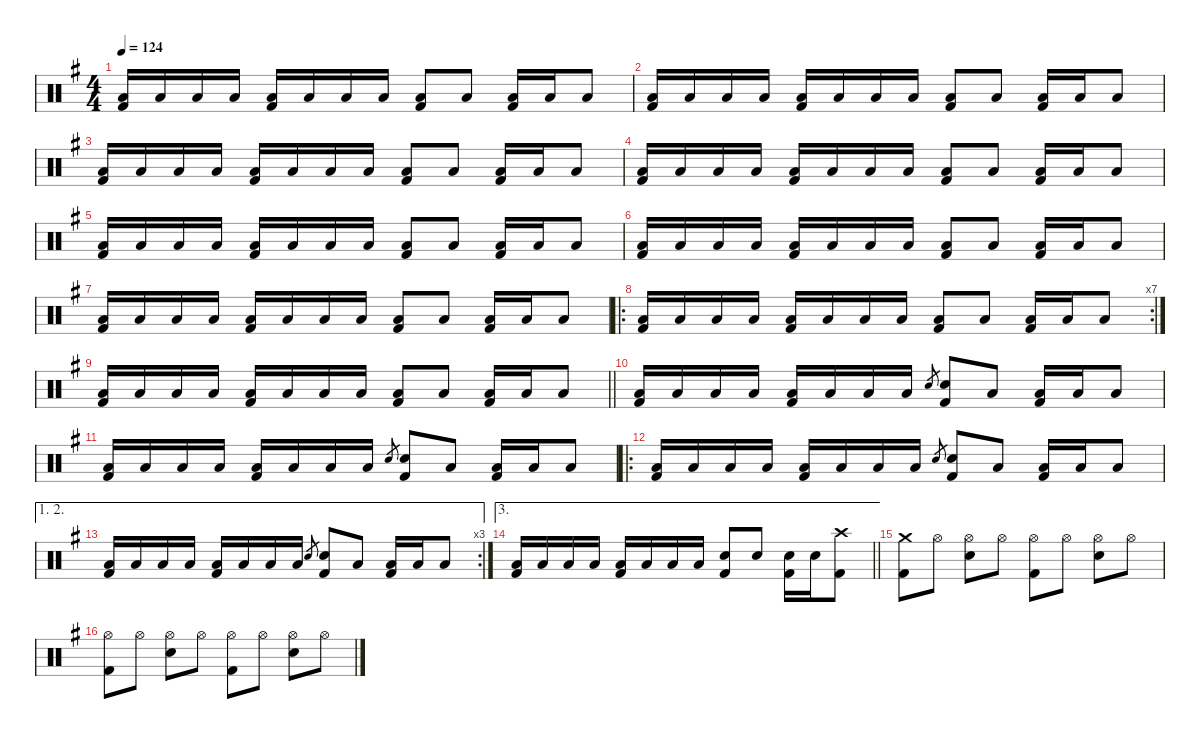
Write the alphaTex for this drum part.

\defaultSystemsLayout 4
\hideDynamics
\bracketExtendMode nobrackets
\singleTrackTrackNamePolicy hidden
\multiTrackTrackNamePolicy hidden
\otherSystemsTrackNameOrientation horizontal
\track ("Drums" "drm.") {defaultSystemsLayout 4 instrument percussion}
\staff {score}
\articulation defaults
\ts (4 4)
\beaming (8 2 2 2 2)
\tempo 124
\clef neutral
\ks eminor
("Low Floor Tom (hit)"{acc forcenatural} "Kick (hit) 2"{acc forcenatural}).16{dy mf beam Up} "Low Floor Tom (hit)"{acc forcenatural}.16{dy mp beam Up} "Low Floor Tom (hit)"{acc forcenatural}.16{dy mf beam Up} "Low Floor Tom (hit)"{acc forcenatural}.16{dy mp beam Up} ("Low Floor Tom (hit)"{acc forcenatural} "Kick (hit) 2"{acc forcenatural}).16{dy mf beam Up} "Low Floor Tom (hit)"{acc forcenatural}.16{dy mp beam Up} "Low Floor Tom (hit)"{acc forcenatural}.16{dy mf beam Up} "Low Floor Tom (hit)"{acc forcenatural}.16{dy p beam Up} ("Low Floor Tom (hit)"{acc forcenatural} "Kick (hit) 2"{acc forcenatural}).8{dy mf beam Up} "Low Floor Tom (hit)"{acc forcenatural}.8{beam Up} ("Low Floor Tom (hit)"{acc forcenatural} "Kick (hit) 2"{acc forcenatural}).16{beam Up} "Low Floor Tom (hit)"{acc forcenatural}.16{dy mp beam Up} "Low Floor Tom (hit)"{acc forcenatural}.8{dy mf beam Up} |
("Low Floor Tom (hit)"{acc forcenatural} "Kick (hit) 2"{acc forcenatural}).16{beam Up} "Low Floor Tom (hit)"{acc forcenatural}.16{dy mp beam Up} "Low Floor Tom (hit)"{acc forcenatural}.16{dy mf beam Up} "Low Floor Tom (hit)"{acc forcenatural}.16{dy mp beam Up} ("Low Floor Tom (hit)"{acc forcenatural} "Kick (hit) 2"{acc forcenatural}).16{dy mf beam Up} "Low Floor Tom (hit)"{acc forcenatural}.16{dy mp beam Up} "Low Floor Tom (hit)"{acc forcenatural}.16{dy mf beam Up} "Low Floor Tom (hit)"{acc forcenatural}.16{dy p beam Up} ("Low Floor Tom (hit)"{acc forcenatural} "Kick (hit) 2"{acc forcenatural}).8{dy mf beam Up} "Low Floor Tom (hit)"{acc forcenatural}.8{beam Up} ("Low Floor Tom (hit)"{acc forcenatural} "Kick (hit) 2"{acc forcenatural}).16{beam Up} "Low Floor Tom (hit)"{acc forcenatural}.16{dy mp beam Up} "Low Floor Tom (hit)"{acc forcenatural}.8{dy mf beam Up} |
("Low Floor Tom (hit)"{acc forcenatural} "Kick (hit) 2"{acc forcenatural}).16{beam Up} "Low Floor Tom (hit)"{acc forcenatural}.16{dy mp beam Up} "Low Floor Tom (hit)"{acc forcenatural}.16{dy mf beam Up} "Low Floor Tom (hit)"{acc forcenatural}.16{dy mp beam Up} ("Low Floor Tom (hit)"{acc forcenatural} "Kick (hit) 2"{acc forcenatural}).16{dy mf beam Up} "Low Floor Tom (hit)"{acc forcenatural}.16{dy mp beam Up} "Low Floor Tom (hit)"{acc forcenatural}.16{dy mf beam Up} "Low Floor Tom (hit)"{acc forcenatural}.16{dy p beam Up} ("Low Floor Tom (hit)"{acc forcenatural} "Kick (hit) 2"{acc forcenatural}).8{dy mf beam Up} "Low Floor Tom (hit)"{acc forcenatural}.8{beam Up} ("Low Floor Tom (hit)"{acc forcenatural} "Kick (hit) 2"{acc forcenatural}).16{beam Up} "Low Floor Tom (hit)"{acc forcenatural}.16{dy mp beam Up} "Low Floor Tom (hit)"{acc forcenatural}.8{dy mf beam Up} |
("Low Floor Tom (hit)"{acc forcenatural} "Kick (hit) 2"{acc forcenatural}).16{beam Up} "Low Floor Tom (hit)"{acc forcenatural}.16{dy mp beam Up} "Low Floor Tom (hit)"{acc forcenatural}.16{dy mf beam Up} "Low Floor Tom (hit)"{acc forcenatural}.16{dy mp beam Up} ("Low Floor Tom (hit)"{acc forcenatural} "Kick (hit) 2"{acc forcenatural}).16{dy mf beam Up} "Low Floor Tom (hit)"{acc forcenatural}.16{dy mp beam Up} "Low Floor Tom (hit)"{acc forcenatural}.16{dy mf beam Up} "Low Floor Tom (hit)"{acc forcenatural}.16{dy p beam Up} ("Low Floor Tom (hit)"{acc forcenatural} "Kick (hit) 2"{acc forcenatural}).8{dy mf beam Up} "Low Floor Tom (hit)"{acc forcenatural}.8{beam Up} ("Low Floor Tom (hit)"{acc forcenatural} "Kick (hit) 2"{acc forcenatural}).16{beam Up} "Low Floor Tom (hit)"{acc forcenatural}.16{dy mp beam Up} "Low Floor Tom (hit)"{acc forcenatural}.8{dy mf beam Up} |
("Low Floor Tom (hit)"{acc forcenatural} "Kick (hit) 2"{acc forcenatural}).16{beam Up} "Low Floor Tom (hit)"{acc forcenatural}.16{dy mp beam Up} "Low Floor Tom (hit)"{acc forcenatural}.16{dy mf beam Up} "Low Floor Tom (hit)"{acc forcenatural}.16{dy mp beam Up} ("Low Floor Tom (hit)"{acc forcenatural} "Kick (hit) 2"{acc forcenatural}).16{dy mf beam Up} "Low Floor Tom (hit)"{acc forcenatural}.16{dy mp beam Up} "Low Floor Tom (hit)"{acc forcenatural}.16{dy mf beam Up} "Low Floor Tom (hit)"{acc forcenatural}.16{dy p beam Up} ("Low Floor Tom (hit)"{acc forcenatural} "Kick (hit) 2"{acc forcenatural}).8{dy mf beam Up} "Low Floor Tom (hit)"{acc forcenatural}.8{beam Up} ("Low Floor Tom (hit)"{acc forcenatural} "Kick (hit) 2"{acc forcenatural}).16{beam Up} "Low Floor Tom (hit)"{acc forcenatural}.16{dy mp beam Up} "Low Floor Tom (hit)"{acc forcenatural}.8{dy mf beam Up} |
("Low Floor Tom (hit)"{acc forcenatural} "Kick (hit) 2"{acc forcenatural}).16{beam Up} "Low Floor Tom (hit)"{acc forcenatural}.16{dy mp beam Up} "Low Floor Tom (hit)"{acc forcenatural}.16{dy mf beam Up} "Low Floor Tom (hit)"{acc forcenatural}.16{dy mp beam Up} ("Low Floor Tom (hit)"{acc forcenatural} "Kick (hit) 2"{acc forcenatural}).16{dy mf beam Up} "Low Floor Tom (hit)"{acc forcenatural}.16{dy mp beam Up} "Low Floor Tom (hit)"{acc forcenatural}.16{dy mf beam Up} "Low Floor Tom (hit)"{acc forcenatural}.16{dy p beam Up} ("Low Floor Tom (hit)"{acc forcenatural} "Kick (hit) 2"{acc forcenatural}).8{dy mf beam Up} "Low Floor Tom (hit)"{acc forcenatural}.8{beam Up} ("Low Floor Tom (hit)"{acc forcenatural} "Kick (hit) 2"{acc forcenatural}).16{beam Up} "Low Floor Tom (hit)"{acc forcenatural}.16{dy mp beam Up} "Low Floor Tom (hit)"{acc forcenatural}.8{dy mf beam Up} |
("Low Floor Tom (hit)"{acc forcenatural} "Kick (hit) 2"{acc forcenatural}).16{beam Up} "Low Floor Tom (hit)"{acc forcenatural}.16{dy mp beam Up} "Low Floor Tom (hit)"{acc forcenatural}.16{dy mf beam Up} "Low Floor Tom (hit)"{acc forcenatural}.16{dy mp beam Up} ("Low Floor Tom (hit)"{acc forcenatural} "Kick (hit) 2"{acc forcenatural}).16{dy mf beam Up} "Low Floor Tom (hit)"{acc forcenatural}.16{dy mp beam Up} "Low Floor Tom (hit)"{acc forcenatural}.16{dy mf beam Up} "Low Floor Tom (hit)"{acc forcenatural}.16{dy p beam Up} ("Low Floor Tom (hit)"{acc forcenatural} "Kick (hit) 2"{acc forcenatural}).8{dy mf beam Up} "Low Floor Tom (hit)"{acc forcenatural}.8{beam Up} ("Low Floor Tom (hit)"{acc forcenatural} "Kick (hit) 2"{acc forcenatural}).16{beam Up} "Low Floor Tom (hit)"{acc forcenatural}.16{dy mp beam Up} "Low Floor Tom (hit)"{acc forcenatural}.8{dy mf beam Up} |
\ro
\rc 7
("Low Floor Tom (hit)"{acc forcenatural} "Kick (hit) 2"{acc forcenatural}).16{beam Up} "Low Floor Tom (hit)"{acc forcenatural}.16{dy mp beam Up} "Low Floor Tom (hit)"{acc forcenatural}.16{dy mf beam Up} "Low Floor Tom (hit)"{acc forcenatural}.16{dy mp beam Up} ("Low Floor Tom (hit)"{acc forcenatural} "Kick (hit) 2"{acc forcenatural}).16{dy mf beam Up} "Low Floor Tom (hit)"{acc forcenatural}.16{dy mp beam Up} "Low Floor Tom (hit)"{acc forcenatural}.16{dy mf beam Up} "Low Floor Tom (hit)"{acc forcenatural}.16{dy p beam Up} ("Low Floor Tom (hit)"{acc forcenatural} "Kick (hit) 2"{acc forcenatural}).8{dy mf beam Up} "Low Floor Tom (hit)"{acc forcenatural}.8{beam Up} ("Low Floor Tom (hit)"{acc forcenatural} "Kick (hit) 2"{acc forcenatural}).16{beam Up} "Low Floor Tom (hit)"{acc forcenatural}.16{dy mp beam Up} "Low Floor Tom (hit)"{acc forcenatural}.8{dy mf beam Up} |
\barLineRight lightlight
("Low Floor Tom (hit)"{acc forcenatural} "Kick (hit) 2"{acc forcenatural}).16{beam Up} "Low Floor Tom (hit)"{acc forcenatural}.16{dy mp beam Up} "Low Floor Tom (hit)"{acc forcenatural}.16{dy mf beam Up} "Low Floor Tom (hit)"{acc forcenatural}.16{dy mp beam Up} ("Low Floor Tom (hit)"{acc forcenatural} "Kick (hit) 2"{acc forcenatural}).16{dy mf beam Up} "Low Floor Tom (hit)"{acc forcenatural}.16{dy mp beam Up} "Low Floor Tom (hit)"{acc forcenatural}.16{dy mf beam Up} "Low Floor Tom (hit)"{acc forcenatural}.16{dy p beam Up} ("Low Floor Tom (hit)"{acc forcenatural} "Kick (hit) 2"{acc forcenatural}).8{dy mf beam Up} "Low Floor Tom (hit)"{acc forcenatural}.8{beam Up} ("Low Floor Tom (hit)"{acc forcenatural} "Kick (hit) 2"{acc forcenatural}).16{beam Up} "Low Floor Tom (hit)"{acc forcenatural}.16{dy mp beam Up} "Low Floor Tom (hit)"{acc forcenatural}.8{dy mf beam Up} |
("Low Floor Tom (hit)"{acc forcenatural} "Kick (hit) 2"{acc forcenatural}).16{beam Up} "Low Floor Tom (hit)"{acc forcenatural}.16{dy mp beam Up} "Low Floor Tom (hit)"{acc forcenatural}.16{dy mf beam Up} "Low Floor Tom (hit)"{acc forcenatural}.16{dy mp beam Up} ("Low Floor Tom (hit)"{acc forcenatural} "Kick (hit) 2"{acc forcenatural}).16{dy mf beam Up} "Low Floor Tom (hit)"{acc forcenatural}.16{dy mp beam Up} "Low Floor Tom (hit)"{acc forcenatural}.16{dy mf beam Up} "Low Floor Tom (hit)"{acc forcenatural}.16{dy p beam Up} "Electric Snare (hit)"{acc forcenatural}.8{gr beam Up} ("Snare (hit) 2"{acc forcenatural} "Kick (hit) 2"{acc forcenatural}).8{dy f beam Up} "Low Floor Tom (hit)"{acc forcenatural}.8{dy mf beam Up} ("Low Floor Tom (hit)"{acc forcenatural} "Kick (hit) 2"{acc forcenatural}).16{beam Up} "Low Floor Tom (hit)"{acc forcenatural}.16{dy mp beam Up} "Low Floor Tom (hit)"{acc forcenatural}.8{dy mf beam Up} |
("Low Floor Tom (hit)"{acc forcenatural} "Kick (hit) 2"{acc forcenatural}).16{beam Up} "Low Floor Tom (hit)"{acc forcenatural}.16{dy mp beam Up} "Low Floor Tom (hit)"{acc forcenatural}.16{dy mf beam Up} "Low Floor Tom (hit)"{acc forcenatural}.16{dy mp beam Up} ("Low Floor Tom (hit)"{acc forcenatural} "Kick (hit) 2"{acc forcenatural}).16{dy mf beam Up} "Low Floor Tom (hit)"{acc forcenatural}.16{dy mp beam Up} "Low Floor Tom (hit)"{acc forcenatural}.16{dy mf beam Up} "Low Floor Tom (hit)"{acc forcenatural}.16{dy p beam Up} "Electric Snare (hit)"{acc forcenatural}.8{gr dy mp beam Up} ("Snare (hit) 2"{acc forcenatural} "Kick (hit) 2"{acc forcenatural}).8{dy f beam Up} "Low Floor Tom (hit)"{acc forcenatural}.8{dy mf beam Up} ("Low Floor Tom (hit)"{acc forcenatural} "Kick (hit) 2"{acc forcenatural}).16{beam Up} "Low Floor Tom (hit)"{acc forcenatural}.16{dy mp beam Up} "Low Floor Tom (hit)"{acc forcenatural}.8{dy mf beam Up} |
\ro
("Low Floor Tom (hit)"{acc forcenatural} "Kick (hit) 2"{acc forcenatural}).16{beam Up} "Low Floor Tom (hit)"{acc forcenatural}.16{dy mp beam Up} "Low Floor Tom (hit)"{acc forcenatural}.16{dy mf beam Up} "Low Floor Tom (hit)"{acc forcenatural}.16{dy mp beam Up} ("Low Floor Tom (hit)"{acc forcenatural} "Kick (hit) 2"{acc forcenatural}).16{dy mf beam Up} "Low Floor Tom (hit)"{acc forcenatural}.16{dy mp beam Up} "Low Floor Tom (hit)"{acc forcenatural}.16{dy mf beam Up} "Low Floor Tom (hit)"{acc forcenatural}.16{dy p beam Up} "Electric Snare (hit)"{acc forcenatural}.8{gr dy mp beam Up} ("Snare (hit) 2"{acc forcenatural} "Kick (hit) 2"{acc forcenatural}).8{dy ff beam Up} "Low Floor Tom (hit)"{acc forcenatural}.8{dy mf beam Up} ("Low Floor Tom (hit)"{acc forcenatural} "Kick (hit) 2"{acc forcenatural}).16{beam Up} "Low Floor Tom (hit)"{acc forcenatural}.16{dy mp beam Up} "Low Floor Tom (hit)"{acc forcenatural}.8{dy mf beam Up} |
\ae (1 2)
\rc 3
("Low Floor Tom (hit)"{acc forcenatural} "Kick (hit) 2"{acc forcenatural}).16{beam Up} "Low Floor Tom (hit)"{acc forcenatural}.16{dy mp beam Up} "Low Floor Tom (hit)"{acc forcenatural}.16{dy mf beam Up} "Low Floor Tom (hit)"{acc forcenatural}.16{dy mp beam Up} ("Low Floor Tom (hit)"{acc forcenatural} "Kick (hit) 2"{acc forcenatural}).16{dy mf beam Up} "Low Floor Tom (hit)"{acc forcenatural}.16{dy mp beam Up} "Low Floor Tom (hit)"{acc forcenatural}.16{dy mf beam Up} "Low Floor Tom (hit)"{acc forcenatural}.16{dy p beam Up} "Electric Snare (hit)"{acc forcenatural}.8{gr dy mp beam Up} ("Snare (hit) 2"{acc forcenatural} "Kick (hit) 2"{acc forcenatural}).8{dy ff beam Up} "Low Floor Tom (hit)"{acc forcenatural}.8{dy mf beam Up} ("Low Floor Tom (hit)"{acc forcenatural} "Kick (hit) 2"{acc forcenatural}).16{beam Up} "Low Floor Tom (hit)"{acc forcenatural}.16{dy mp beam Up} "Low Floor Tom (hit)"{acc forcenatural}.8{dy mf beam Up} |
\ae 3
\barLineRight lightlight
("Low Floor Tom (hit)"{acc forcenatural} "Kick (hit) 2"{acc forcenatural}).16{beam Up} "Low Floor Tom (hit)"{acc forcenatural}.16{dy mp beam Up} "Low Floor Tom (hit)"{acc forcenatural}.16{dy mf beam Up} "Low Floor Tom (hit)"{acc forcenatural}.16{dy mp beam Up} ("Low Floor Tom (hit)"{acc forcenatural} "Kick (hit) 2"{acc forcenatural}).16{dy mf beam Up} "Low Floor Tom (hit)"{acc forcenatural}.16{dy mp beam Up} "Low Floor Tom (hit)"{acc forcenatural}.16{dy mf beam Up} "Low Floor Tom (hit)"{acc forcenatural}.16{dy p beam Up} ("Snare (hit) 2"{acc forcenatural} "Kick (hit) 2"{acc forcenatural}).8{dy ff beam Up} "Snare (hit) 2"{acc forcenatural}.8{beam Up} ("Snare (hit) 2"{acc forcenatural} "Kick (hit) 2"{acc forcenatural}).16{beam Down} "Snare (hit) 2"{acc forcenatural}.16{beam Down} ("Crash high (hit)"{acc forcenatural} "Kick (hit) 2"{acc forcenatural}).8{dy mp beam Down} |
("Crash medium (hit)"{acc forcenatural} "Kick (hit) 2"{acc forcenatural}).8{dy mf beam Down} "Hi-Hat (open)"{acc forcenatural}.8{beam Down} ("Hi-Hat (open)"{acc forcenatural} "Snare (hit) 2"{acc forcenatural}).8{beam Down} "Hi-Hat (open)"{acc forcenatural}.8{beam Down} ("Hi-Hat (open)"{acc forcenatural} "Kick (hit) 2"{acc forcenatural}).8{beam Down} "Hi-Hat (open)"{acc forcenatural}.8{beam Down} ("Hi-Hat (open)"{acc forcenatural} "Snare (hit) 2"{acc forcenatural}).8{beam Down} "Hi-Hat (open)"{acc forcenatural}.8{beam Down} |
("Hi-Hat (open)"{acc forcenatural} "Kick (hit) 2"{acc forcenatural}).8{beam Down} "Hi-Hat (open)"{acc forcenatural}.8{beam Down} ("Hi-Hat (open)"{acc forcenatural} "Snare (hit) 2"{acc forcenatural}).8{beam Down} "Hi-Hat (open)"{acc forcenatural}.8{beam Down} ("Hi-Hat (open)"{acc forcenatural} "Kick (hit) 2"{acc forcenatural}).8{beam Down} "Hi-Hat (open)"{acc forcenatural}.8{beam Down} ("Hi-Hat (open)"{acc forcenatural} "Snare (hit) 2"{acc forcenatural}).8{beam Down} "Hi-Hat (open)"{acc forcenatural}.8{beam Down}
